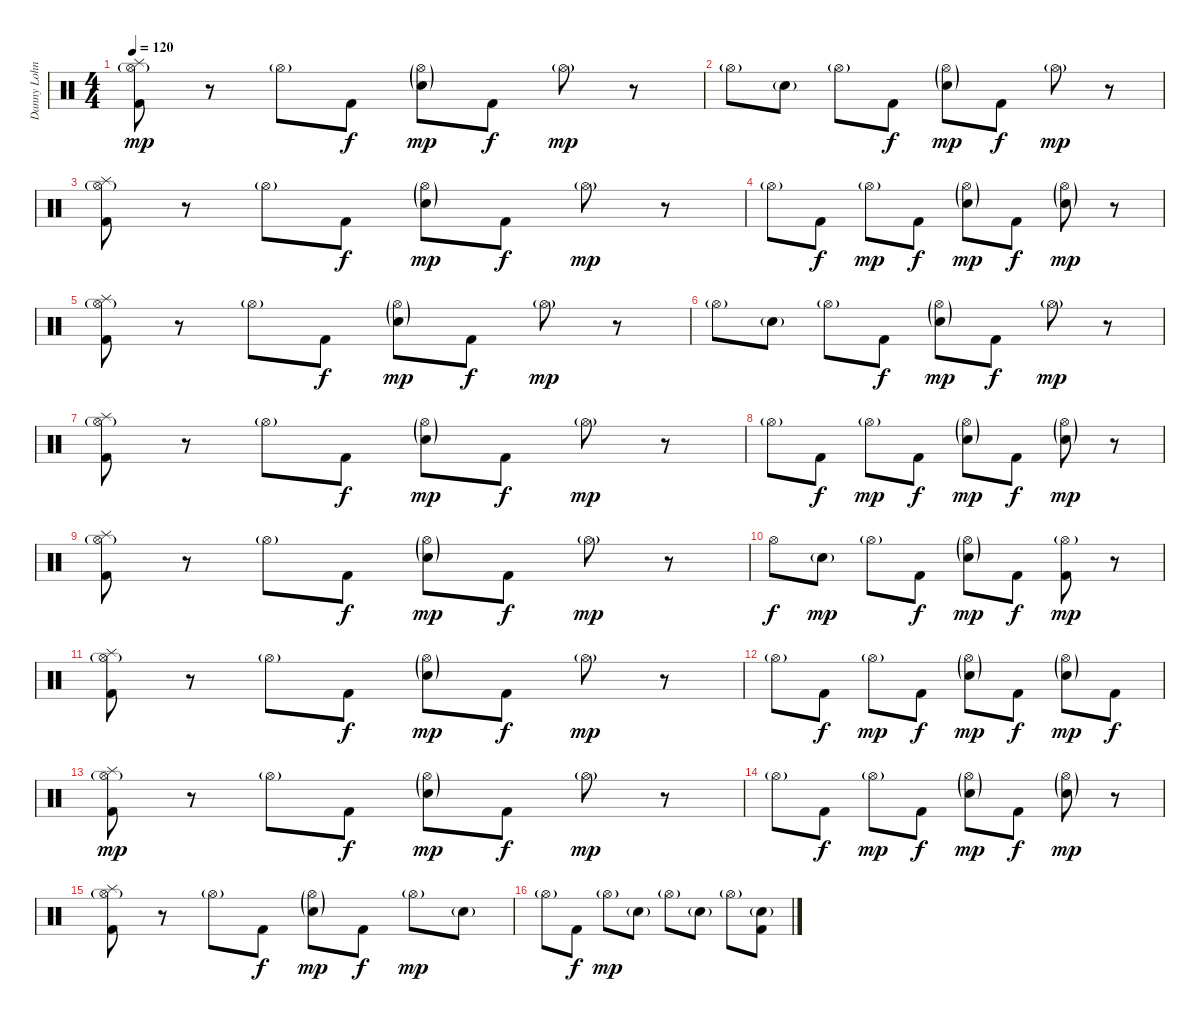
\track ("Danny Lohner" "Danny Lohn") {instrument percussion}
\staff {score}
\articulation defaults
\ts (4 4)
\tempo 120
\clef neutral
\ks c
("Hi-Hat (open)"{g} "Splash (hit)" "Kick (hit) 2").8{dy mp} r.8 "Hi-Hat (open)"{g}.8 "Kick (hit) 2".8{dy f} ("Hi-Hat (open)"{g} "Electric Snare (hit)"{g}).8{dy mp} "Kick (hit) 2".8{dy f} "Hi-Hat (open)"{g}.8{dy mp} r.8 |
"Hi-Hat (open)"{g}.8 "Electric Snare (hit)"{g}.8 "Hi-Hat (open)"{g}.8 "Kick (hit) 2".8{dy f} ("Hi-Hat (open)"{g} "Electric Snare (hit)"{g}).8{dy mp} "Kick (hit) 2".8{dy f} "Hi-Hat (open)"{g}.8{dy mp} r.8 |
("Hi-Hat (open)"{g} "Splash (hit)" "Kick (hit) 2").8 r.8 "Hi-Hat (open)"{g}.8 "Kick (hit) 2".8{dy f} ("Hi-Hat (open)"{g} "Electric Snare (hit)"{g}).8{dy mp} "Kick (hit) 2".8{dy f} "Hi-Hat (open)"{g}.8{dy mp} r.8 |
"Hi-Hat (open)"{g}.8 "Kick (hit) 2".8{dy f} "Hi-Hat (open)"{g}.8{dy mp} "Kick (hit) 2".8{dy f} ("Hi-Hat (open)"{g} "Electric Snare (hit)"{g}).8{dy mp} "Kick (hit) 2".8{dy f} ("Hi-Hat (open)"{g} "Electric Snare (hit)"{g}).8{dy mp} r.8 |
("Hi-Hat (open)"{g} "Splash (hit)" "Kick (hit) 2").8 r.8 "Hi-Hat (open)"{g}.8 "Kick (hit) 2".8{dy f} ("Hi-Hat (open)"{g} "Electric Snare (hit)"{g}).8{dy mp} "Kick (hit) 2".8{dy f} "Hi-Hat (open)"{g}.8{dy mp} r.8 |
"Hi-Hat (open)"{g}.8 "Electric Snare (hit)"{g}.8 "Hi-Hat (open)"{g}.8 "Kick (hit) 2".8{dy f} ("Hi-Hat (open)"{g} "Electric Snare (hit)"{g}).8{dy mp} "Kick (hit) 2".8{dy f} "Hi-Hat (open)"{g}.8{dy mp} r.8 |
("Hi-Hat (open)"{g} "Splash (hit)" "Kick (hit) 2").8 r.8 "Hi-Hat (open)"{g}.8 "Kick (hit) 2".8{dy f} ("Hi-Hat (open)"{g} "Electric Snare (hit)"{g}).8{dy mp} "Kick (hit) 2".8{dy f} "Hi-Hat (open)"{g}.8{dy mp} r.8 |
"Hi-Hat (open)"{g}.8 "Kick (hit) 2".8{dy f} "Hi-Hat (open)"{g}.8{dy mp} "Kick (hit) 2".8{dy f} ("Hi-Hat (open)"{g} "Electric Snare (hit)"{g}).8{dy mp} "Kick (hit) 2".8{dy f} ("Hi-Hat (open)"{g} "Electric Snare (hit)"{g}).8{dy mp} r.8 |
("Hi-Hat (open)"{g} "Splash (hit)" "Kick (hit) 2").8 r.8 "Hi-Hat (open)"{g}.8 "Kick (hit) 2".8{dy f} ("Hi-Hat (open)"{g} "Electric Snare (hit)"{g}).8{dy mp} "Kick (hit) 2".8{dy f} "Hi-Hat (open)"{g}.8{dy mp} r.8 |
"Hi-Hat (open)".8{dy f} "Electric Snare (hit)"{g}.8{dy mp} "Hi-Hat (open)"{g}.8 "Kick (hit) 2".8{dy f} ("Hi-Hat (open)"{g} "Electric Snare (hit)"{g}).8{dy mp} "Kick (hit) 2".8{dy f} ("Hi-Hat (open)"{g} "Kick (hit) 2").8{dy mp} r.8 |
("Hi-Hat (open)"{g} "Splash (hit)" "Kick (hit) 2").8 r.8 "Hi-Hat (open)"{g}.8 "Kick (hit) 2".8{dy f} ("Hi-Hat (open)"{g} "Electric Snare (hit)"{g}).8{dy mp} "Kick (hit) 2".8{dy f} "Hi-Hat (open)"{g}.8{dy mp} r.8 |
"Hi-Hat (open)"{g}.8 "Kick (hit) 2".8{dy f} "Hi-Hat (open)"{g}.8{dy mp} "Kick (hit) 2".8{dy f} ("Hi-Hat (open)"{g} "Electric Snare (hit)"{g}).8{dy mp} "Kick (hit) 2".8{dy f} ("Hi-Hat (open)"{g} "Electric Snare (hit)"{g}).8{dy mp} "Kick (hit) 2".8{dy f} |
("Hi-Hat (open)"{g} "Splash (hit)" "Kick (hit) 2").8{dy mp} r.8 "Hi-Hat (open)"{g}.8 "Kick (hit) 2".8{dy f} ("Hi-Hat (open)"{g} "Electric Snare (hit)"{g}).8{dy mp} "Kick (hit) 2".8{dy f} "Hi-Hat (open)"{g}.8{dy mp} r.8 |
"Hi-Hat (open)"{g}.8 "Kick (hit) 2".8{dy f} "Hi-Hat (open)"{g}.8{dy mp} "Kick (hit) 2".8{dy f} ("Hi-Hat (open)"{g} "Electric Snare (hit)"{g}).8{dy mp} "Kick (hit) 2".8{dy f} ("Hi-Hat (open)"{g} "Electric Snare (hit)"{g}).8{dy mp} r.8 |
("Hi-Hat (open)"{g} "Splash (hit)" "Kick (hit) 2").8 r.8 "Hi-Hat (open)"{g}.8 "Kick (hit) 2".8{dy f} ("Hi-Hat (open)"{g} "Electric Snare (hit)"{g}).8{dy mp} "Kick (hit) 2".8{dy f} "Hi-Hat (open)"{g}.8{dy mp} "Electric Snare (hit)"{g}.8 |
"Hi-Hat (open)"{g}.8 "Kick (hit) 2".8{dy f} "Hi-Hat (open)"{g}.8{dy mp} "Electric Snare (hit)"{g}.8 "Hi-Hat (open)"{g}.8 "Electric Snare (hit)"{g}.8 "Hi-Hat (open)"{g}.8 ("Electric Snare (hit)"{g} "Kick (hit) 2").8
